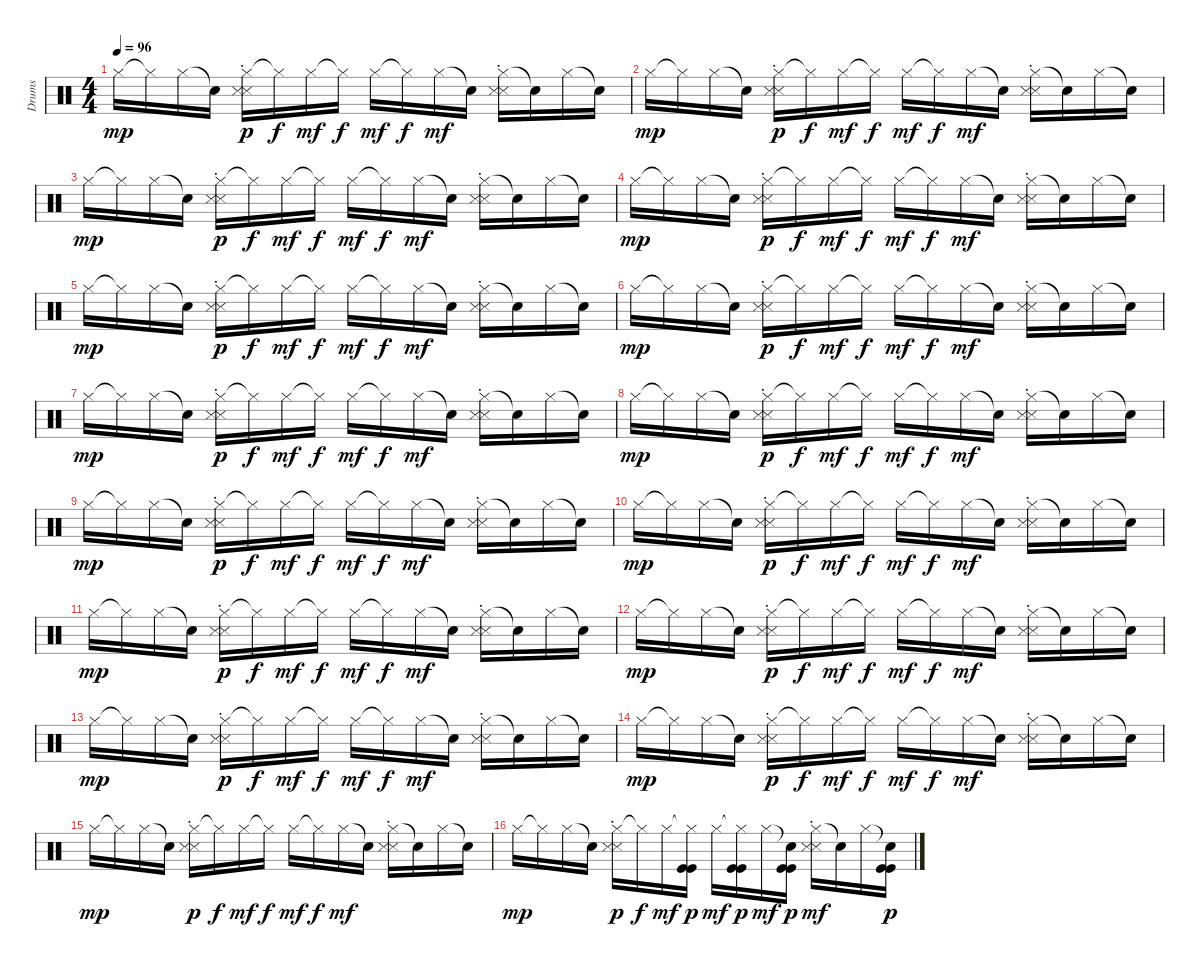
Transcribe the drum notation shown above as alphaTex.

\track ("Drums" "Drums") {instrument percussion}
\staff {score}
\articulation defaults
\ts (4 4)
\tempo 96
\clef neutral
\ks c "Hi-Hat (closed)".16{dy mp} "Hi-Hat (closed)"{t}.16 "Hi-Hat (closed)".16 "Snare (hit)"{t}.16
("Hi-Hat (closed)" "Snare (side stick) 3"{st} "Snare (side stick) 3").16{dy p} "Hi-Hat (closed)"{t}.16{dy f} "Hi-Hat (closed)".16{dy mf} "Hi-Hat (closed)"{t}.16{dy f} "Hi-Hat (closed)".16{dy mf} "Hi-Hat (closed)"{t}.16{dy f} "Hi-Hat (closed)".16{dy mf} "Snare (hit)"{t}.16 ("Hi-Hat (closed)" "Snare (side stick) 3"{st} "Snare (side stick) 3").16 "Snare (hit)"{t}.16 "Hi-Hat (closed)".16 "Snare (hit)"{t}.16 |
"Hi-Hat (closed)".16{dy mp} "Hi-Hat (closed)"{t}.16 "Hi-Hat (closed)".16 "Snare (hit)"{t}.16 ("Hi-Hat (closed)" "Snare (side stick) 3"{st} "Snare (side stick) 3").16{dy p} "Hi-Hat (closed)"{t}.16{dy f} "Hi-Hat (closed)".16{dy mf} "Hi-Hat (closed)"{t}.16{dy f} "Hi-Hat (closed)".16{dy mf} "Hi-Hat (closed)"{t}.16{dy f} "Hi-Hat (closed)".16{dy mf} "Snare (hit)"{t}.16 ("Hi-Hat (closed)" "Snare (side stick) 3"{st} "Snare (side stick) 3").16 "Snare (hit)"{t}.16 "Hi-Hat (closed)".16 "Snare (hit)"{t}.16 |
"Hi-Hat (closed)".16{dy mp} "Hi-Hat (closed)"{t}.16 "Hi-Hat (closed)".16 "Snare (hit)"{t}.16 ("Hi-Hat (closed)" "Snare (side stick) 3"{st} "Snare (side stick) 3").16{dy p} "Hi-Hat (closed)"{t}.16{dy f} "Hi-Hat (closed)".16{dy mf} "Hi-Hat (closed)"{t}.16{dy f} "Hi-Hat (closed)".16{dy mf} "Hi-Hat (closed)"{t}.16{dy f} "Hi-Hat (closed)".16{dy mf} "Snare (hit)"{t}.16 ("Hi-Hat (closed)" "Snare (side stick) 3"{st} "Snare (side stick) 3").16 "Snare (hit)"{t}.16 "Hi-Hat (closed)".16 "Snare (hit)"{t}.16 |
"Hi-Hat (closed)".16{dy mp} "Hi-Hat (closed)"{t}.16 "Hi-Hat (closed)".16 "Snare (hit)"{t}.16 ("Hi-Hat (closed)" "Snare (side stick) 3"{st} "Snare (side stick) 3").16{dy p} "Hi-Hat (closed)"{t}.16{dy f} "Hi-Hat (closed)".16{dy mf} "Hi-Hat (closed)"{t}.16{dy f} "Hi-Hat (closed)".16{dy mf} "Hi-Hat (closed)"{t}.16{dy f} "Hi-Hat (closed)".16{dy mf} "Snare (hit)"{t}.16 ("Hi-Hat (closed)" "Snare (side stick) 3"{st} "Snare (side stick) 3").16 "Snare (hit)"{t}.16 "Hi-Hat (closed)".16 "Snare (hit)"{t}.16 |
"Hi-Hat (closed)".16{dy mp} "Hi-Hat (closed)"{t}.16 "Hi-Hat (closed)".16 "Snare (hit)"{t}.16 ("Hi-Hat (closed)" "Snare (side stick) 3"{st} "Snare (side stick) 3").16{dy p} "Hi-Hat (closed)"{t}.16{dy f} "Hi-Hat (closed)".16{dy mf} "Hi-Hat (closed)"{t}.16{dy f} "Hi-Hat (closed)".16{dy mf} "Hi-Hat (closed)"{t}.16{dy f} "Hi-Hat (closed)".16{dy mf} "Snare (hit)"{t}.16 ("Hi-Hat (closed)" "Snare (side stick) 3"{st} "Snare (side stick) 3").16 "Snare (hit)"{t}.16 "Hi-Hat (closed)".16 "Snare (hit)"{t}.16 |
"Hi-Hat (closed)".16{dy mp} "Hi-Hat (closed)"{t}.16 "Hi-Hat (closed)".16 "Snare (hit)"{t}.16 ("Hi-Hat (closed)" "Snare (side stick) 3"{st} "Snare (side stick) 3").16{dy p} "Hi-Hat (closed)"{t}.16{dy f} "Hi-Hat (closed)".16{dy mf} "Hi-Hat (closed)"{t}.16{dy f} "Hi-Hat (closed)".16{dy mf} "Hi-Hat (closed)"{t}.16{dy f} "Hi-Hat (closed)".16{dy mf} "Snare (hit)"{t}.16 ("Hi-Hat (closed)" "Snare (side stick) 3"{st} "Snare (side stick) 3").16 "Snare (hit)"{t}.16 "Hi-Hat (closed)".16 "Snare (hit)"{t}.16 |
"Hi-Hat (closed)".16{dy mp} "Hi-Hat (closed)"{t}.16 "Hi-Hat (closed)".16 "Snare (hit)"{t}.16 ("Hi-Hat (closed)" "Snare (side stick) 3"{st} "Snare (side stick) 3").16{dy p} "Hi-Hat (closed)"{t}.16{dy f} "Hi-Hat (closed)".16{dy mf} "Hi-Hat (closed)"{t}.16{dy f} "Hi-Hat (closed)".16{dy mf} "Hi-Hat (closed)"{t}.16{dy f} "Hi-Hat (closed)".16{dy mf} "Snare (hit)"{t}.16 ("Hi-Hat (closed)" "Snare (side stick) 3"{st} "Snare (side stick) 3").16 "Snare (hit)"{t}.16 "Hi-Hat (closed)".16 "Snare (hit)"{t}.16 |
"Hi-Hat (closed)".16{dy mp} "Hi-Hat (closed)"{t}.16 "Hi-Hat (closed)".16 "Snare (hit)"{t}.16 ("Hi-Hat (closed)" "Snare (side stick) 3"{st} "Snare (side stick) 3").16{dy p} "Hi-Hat (closed)"{t}.16{dy f} "Hi-Hat (closed)".16{dy mf} "Hi-Hat (closed)"{t}.16{dy f} "Hi-Hat (closed)".16{dy mf} "Hi-Hat (closed)"{t}.16{dy f} "Hi-Hat (closed)".16{dy mf} "Snare (hit)"{t}.16 ("Hi-Hat (closed)" "Snare (side stick) 3"{st} "Snare (side stick) 3").16 "Snare (hit)"{t}.16 "Hi-Hat (closed)".16 "Snare (hit)"{t}.16 |
"Hi-Hat (closed)".16{dy mp} "Hi-Hat (closed)"{t}.16 "Hi-Hat (closed)".16 "Snare (hit)"{t}.16 ("Hi-Hat (closed)" "Snare (side stick) 3"{st} "Snare (side stick) 3").16{dy p} "Hi-Hat (closed)"{t}.16{dy f} "Hi-Hat (closed)".16{dy mf} "Hi-Hat (closed)"{t}.16{dy f} "Hi-Hat (closed)".16{dy mf} "Hi-Hat (closed)"{t}.16{dy f} "Hi-Hat (closed)".16{dy mf} "Snare (hit)"{t}.16 ("Hi-Hat (closed)" "Snare (side stick) 3"{st} "Snare (side stick) 3").16 "Snare (hit)"{t}.16 "Hi-Hat (closed)".16 "Snare (hit)"{t}.16 |
"Hi-Hat (closed)".16{dy mp} "Hi-Hat (closed)"{t}.16 "Hi-Hat (closed)".16 "Snare (hit)"{t}.16 ("Hi-Hat (closed)" "Snare (side stick) 3"{st} "Snare (side stick) 3").16{dy p} "Hi-Hat (closed)"{t}.16{dy f} "Hi-Hat (closed)".16{dy mf} "Hi-Hat (closed)"{t}.16{dy f} "Hi-Hat (closed)".16{dy mf} "Hi-Hat (closed)"{t}.16{dy f} "Hi-Hat (closed)".16{dy mf} "Snare (hit)"{t}.16 ("Hi-Hat (closed)" "Snare (side stick) 3"{st} "Snare (side stick) 3").16 "Snare (hit)"{t}.16 "Hi-Hat (closed)".16 "Snare (hit)"{t}.16 |
"Hi-Hat (closed)".16{dy mp} "Hi-Hat (closed)"{t}.16 "Hi-Hat (closed)".16 "Snare (hit)"{t}.16 ("Hi-Hat (closed)" "Snare (side stick) 3"{st} "Snare (side stick) 3").16{dy p} "Hi-Hat (closed)"{t}.16{dy f} "Hi-Hat (closed)".16{dy mf} "Hi-Hat (closed)"{t}.16{dy f} "Hi-Hat (closed)".16{dy mf} "Hi-Hat (closed)"{t}.16{dy f} "Hi-Hat (closed)".16{dy mf} "Snare (hit)"{t}.16 ("Hi-Hat (closed)" "Snare (side stick) 3"{st} "Snare (side stick) 3").16 "Snare (hit)"{t}.16 "Hi-Hat (closed)".16 "Snare (hit)"{t}.16 |
"Hi-Hat (closed)".16{dy mp} "Hi-Hat (closed)"{t}.16 "Hi-Hat (closed)".16 "Snare (hit)"{t}.16 ("Hi-Hat (closed)" "Snare (side stick) 3"{st} "Snare (side stick) 3").16{dy p} "Hi-Hat (closed)"{t}.16{dy f} "Hi-Hat (closed)".16{dy mf} "Hi-Hat (closed)"{t}.16{dy f} "Hi-Hat (closed)".16{dy mf} "Hi-Hat (closed)"{t}.16{dy f} "Hi-Hat (closed)".16{dy mf} "Snare (hit)"{t}.16 ("Hi-Hat (closed)" "Snare (side stick) 3"{st} "Snare (side stick) 3").16 "Snare (hit)"{t}.16 "Hi-Hat (closed)".16 "Snare (hit)"{t}.16 |
"Hi-Hat (closed)".16{dy mp} "Hi-Hat (closed)"{t}.16 "Hi-Hat (closed)".16 "Snare (hit)"{t}.16 ("Hi-Hat (closed)" "Snare (side stick) 3"{st} "Snare (side stick) 3").16{dy p} "Hi-Hat (closed)"{t}.16{dy f} "Hi-Hat (closed)".16{dy mf} "Hi-Hat (closed)"{t}.16{dy f} "Hi-Hat (closed)".16{dy mf} "Hi-Hat (closed)"{t}.16{dy f} "Hi-Hat (closed)".16{dy mf} "Snare (hit)"{t}.16 ("Hi-Hat (closed)" "Snare (side stick) 3"{st} "Snare (side stick) 3").16 "Snare (hit)"{t}.16 "Hi-Hat (closed)".16 "Snare (hit)"{t}.16 |
"Hi-Hat (closed)".16{dy mp} "Hi-Hat (closed)"{t}.16 "Hi-Hat (closed)".16 "Snare (hit)"{t}.16 ("Hi-Hat (closed)" "Snare (side stick) 3"{st} "Snare (side stick) 3").16{dy p} "Hi-Hat (closed)"{t}.16{dy f} "Hi-Hat (closed)".16{dy mf} "Hi-Hat (closed)"{t}.16{dy f} "Hi-Hat (closed)".16{dy mf} "Hi-Hat (closed)"{t}.16{dy f} "Hi-Hat (closed)".16{dy mf} "Snare (hit)"{t}.16 ("Hi-Hat (closed)" "Snare (side stick) 3"{st} "Snare (side stick) 3").16 "Snare (hit)"{t}.16 "Hi-Hat (closed)".16 "Snare (hit)"{t}.16 |
"Hi-Hat (closed)".16{dy mp} "Hi-Hat (closed)"{t}.16 "Hi-Hat (closed)".16 "Snare (hit)"{t}.16 ("Hi-Hat (closed)" "Snare (side stick) 3"{st} "Snare (side stick) 3").16{dy p} "Hi-Hat (closed)"{t}.16{dy f} "Hi-Hat (closed)".16{dy mf} "Hi-Hat (closed)"{t}.16{dy f} "Hi-Hat (closed)".16{dy mf} "Hi-Hat (closed)"{t}.16{dy f} "Hi-Hat (closed)".16{dy mf} "Snare (hit)"{t}.16 ("Hi-Hat (closed)" "Snare (side stick) 3"{st} "Snare (side stick) 3").16 "Snare (hit)"{t}.16 "Hi-Hat (closed)".16 "Snare (hit)"{t}.16 |
"Hi-Hat (closed)".16{dy mp} "Hi-Hat (closed)"{t}.16 "Hi-Hat (closed)".16 "Snare (hit)"{t}.16 ("Hi-Hat (closed)" "Snare (side stick) 3"{st} "Snare (side stick) 3").16{dy p} "Hi-Hat (closed)"{t}.16{dy f} "Hi-Hat (closed)".16{dy mf} ("Hi-Hat (closed)"{t} "Kick (hit)" "Kick (hit)").16{dy p} "Hi-Hat (closed)".16{dy mf} ("Hi-Hat (closed)"{t} "Kick (hit)" "Kick (hit)").16{dy p} "Hi-Hat (closed)".16{dy mf} ("Snare (hit)"{t} "Kick (hit)" "Kick (hit)").16{dy p} ("Hi-Hat (closed)" "Snare (side stick) 3"{st} "Snare (side stick) 3").16{dy mf} "Snare (hit)"{t}.16 "Hi-Hat (closed)".16 ("Snare (hit)"{t} "Kick (hit)" "Kick (hit)").16{dy p}
